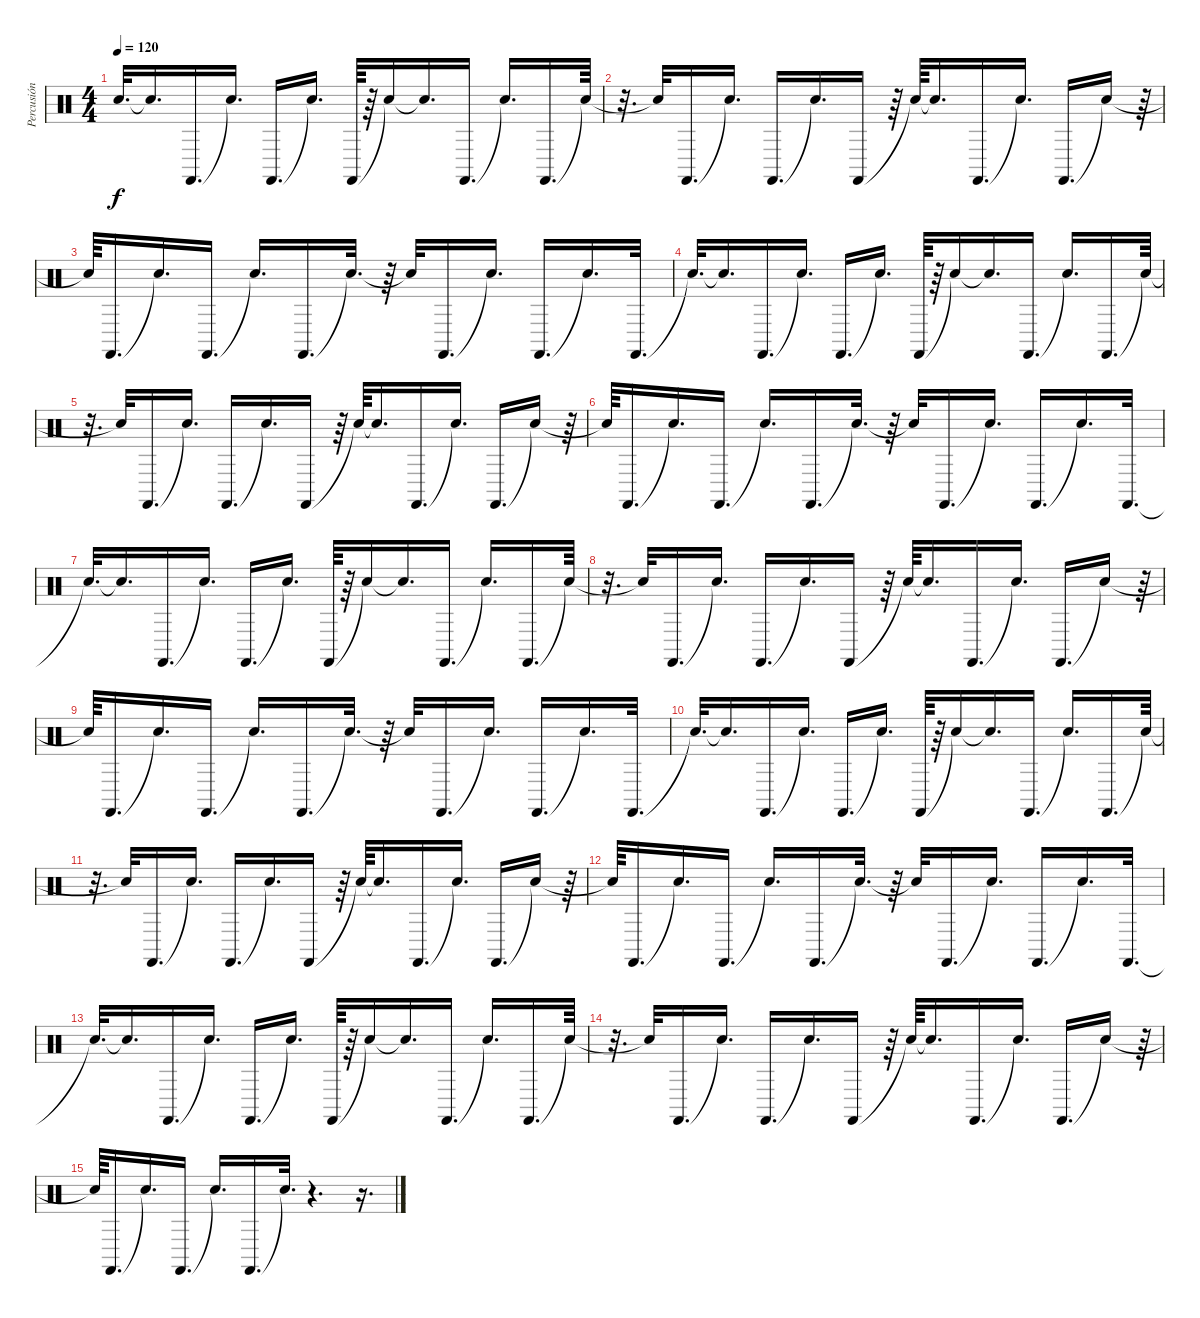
\track ("Percusión" "Percusión") {instrument percussion}
\staff {score}
\articulation defaults
\ts (4 4)
\tempo 120
\clef neutral
\ks c "Snare (hit)"{t}.32{d dy f} "Electric Snare (hit)"{t}.16{d} "Castanets (hit)".16{d} "Snare (hit)"{t}.16{d} "Castanets (hit)".16{d} "Snare (hit)"{t}.16{d} "Castanets (hit)".64
r.64 "Snare (hit)"{t}.16 "Snare (hit)"{t}.16{d} "Castanets (hit)".16{d} "Snare (hit)"{t}.16{d} "Castanets (hit)".16{d} "Electric Snare (hit)"{t}.64 |
r.32{d} "Snare (hit)"{t}.32 "Castanets (hit)".16{d} "Electric Snare (hit)"{t}.16{d} "Castanets (hit)".16{d} "Snare (hit)"{t}.16{d} "Castanets (hit)".16 r.64 "Snare (hit)"{t}.64 "Snare (hit)"{t}.16{d} "Castanets (hit)".16{d} "Snare (hit)"{t}.16{d} "Castanets (hit)".16{d} "Electric Snare (hit)"{t}.16 r.64 |
"Snare (hit)"{t}.64 "Castanets (hit)".16{d} "Electric Snare (hit)"{t}.16{d} "Castanets (hit)".16{d} "Electric Snare (hit)"{t}.16{d} "Castanets (hit)".16{d} "Snare (hit)"{t}.32{d} r.64 "Snare (hit)"{t}.32 "Castanets (hit)".16{d} "Snare (hit)"{t}.16{d} "Castanets (hit)".16{d} "Electric Snare (hit)"{t}.16{d} "Castanets (hit)".32{d} |
"Snare (hit)"{t}.32{d} "Electric Snare (hit)"{t}.16{d} "Castanets (hit)".16{d} "Snare (hit)"{t}.16{d} "Castanets (hit)".16{d} "Snare (hit)"{t}.16{d} "Castanets (hit)".64 r.64 "Snare (hit)"{t}.16 "Snare (hit)"{t}.16{d} "Castanets (hit)".16{d} "Snare (hit)"{t}.16{d} "Castanets (hit)".16{d} "Electric Snare (hit)"{t}.64 |
r.32{d} "Snare (hit)"{t}.32 "Castanets (hit)".16{d} "Electric Snare (hit)"{t}.16{d} "Castanets (hit)".16{d} "Snare (hit)"{t}.16{d} "Castanets (hit)".16 r.64 "Snare (hit)"{t}.64 "Snare (hit)"{t}.16{d} "Castanets (hit)".16{d} "Snare (hit)"{t}.16{d} "Castanets (hit)".16{d} "Electric Snare (hit)"{t}.16 r.64 |
"Snare (hit)"{t}.64 "Castanets (hit)".16{d} "Electric Snare (hit)"{t}.16{d} "Castanets (hit)".16{d} "Electric Snare (hit)"{t}.16{d} "Castanets (hit)".16{d} "Snare (hit)"{t}.32{d} r.64 "Snare (hit)"{t}.32 "Castanets (hit)".16{d} "Snare (hit)"{t}.16{d} "Castanets (hit)".16{d} "Electric Snare (hit)"{t}.16{d} "Castanets (hit)".32{d} |
"Snare (hit)"{t}.32{d} "Electric Snare (hit)"{t}.16{d} "Castanets (hit)".16{d} "Snare (hit)"{t}.16{d} "Castanets (hit)".16{d} "Snare (hit)"{t}.16{d} "Castanets (hit)".64 r.64 "Snare (hit)"{t}.16 "Snare (hit)"{t}.16{d} "Castanets (hit)".16{d} "Snare (hit)"{t}.16{d} "Castanets (hit)".16{d} "Electric Snare (hit)"{t}.64 |
r.32{d} "Snare (hit)"{t}.32 "Castanets (hit)".16{d} "Electric Snare (hit)"{t}.16{d} "Castanets (hit)".16{d} "Snare (hit)"{t}.16{d} "Castanets (hit)".16 r.64 "Snare (hit)"{t}.64 "Snare (hit)"{t}.16{d} "Castanets (hit)".16{d} "Snare (hit)"{t}.16{d} "Castanets (hit)".16{d} "Electric Snare (hit)"{t}.16 r.64 |
"Snare (hit)"{t}.64 "Castanets (hit)".16{d} "Electric Snare (hit)"{t}.16{d} "Castanets (hit)".16{d} "Electric Snare (hit)"{t}.16{d} "Castanets (hit)".16{d} "Snare (hit)"{t}.32{d} r.64 "Snare (hit)"{t}.32 "Castanets (hit)".16{d} "Snare (hit)"{t}.16{d} "Castanets (hit)".16{d} "Electric Snare (hit)"{t}.16{d} "Castanets (hit)".32{d} |
"Snare (hit)"{t}.32{d} "Electric Snare (hit)"{t}.16{d} "Castanets (hit)".16{d} "Snare (hit)"{t}.16{d} "Castanets (hit)".16{d} "Snare (hit)"{t}.16{d} "Castanets (hit)".64 r.64 "Snare (hit)"{t}.16 "Snare (hit)"{t}.16{d} "Castanets (hit)".16{d} "Snare (hit)"{t}.16{d} "Castanets (hit)".16{d} "Electric Snare (hit)"{t}.64 |
r.32{d} "Snare (hit)"{t}.32 "Castanets (hit)".16{d} "Electric Snare (hit)"{t}.16{d} "Castanets (hit)".16{d} "Snare (hit)"{t}.16{d} "Castanets (hit)".16 r.64 "Snare (hit)"{t}.64 "Snare (hit)"{t}.16{d} "Castanets (hit)".16{d} "Snare (hit)"{t}.16{d} "Castanets (hit)".16{d} "Electric Snare (hit)"{t}.16 r.64 |
"Snare (hit)"{t}.64 "Castanets (hit)".16{d} "Electric Snare (hit)"{t}.16{d} "Castanets (hit)".16{d} "Electric Snare (hit)"{t}.16{d} "Castanets (hit)".16{d} "Snare (hit)"{t}.32{d} r.64 "Snare (hit)"{t}.32 "Castanets (hit)".16{d} "Snare (hit)"{t}.16{d} "Castanets (hit)".16{d} "Electric Snare (hit)"{t}.16{d} "Castanets (hit)".32{d} |
"Snare (hit)"{t}.32{d} "Electric Snare (hit)"{t}.16{d} "Castanets (hit)".16{d} "Snare (hit)"{t}.16{d} "Castanets (hit)".16{d} "Snare (hit)"{t}.16{d} "Castanets (hit)".64 r.64 "Snare (hit)"{t}.16 "Snare (hit)"{t}.16{d} "Castanets (hit)".16{d} "Snare (hit)"{t}.16{d} "Castanets (hit)".16{d} "Electric Snare (hit)"{t}.64 |
r.32{d} "Snare (hit)"{t}.32 "Castanets (hit)".16{d} "Electric Snare (hit)"{t}.16{d} "Castanets (hit)".16{d} "Snare (hit)"{t}.16{d} "Castanets (hit)".16 r.64 "Snare (hit)"{t}.64 "Snare (hit)"{t}.16{d} "Castanets (hit)".16{d} "Snare (hit)"{t}.16{d} "Castanets (hit)".16{d} "Electric Snare (hit)"{t}.16 r.64 |
"Snare (hit)"{t}.64 "Castanets (hit)".16{d} "Electric Snare (hit)"{t}.16{d} "Castanets (hit)".16{d} "Electric Snare (hit)"{t}.16{d} "Castanets (hit)".16{d} "Snare (hit)"{t}.32{d} r.4{d} r.16{d}
